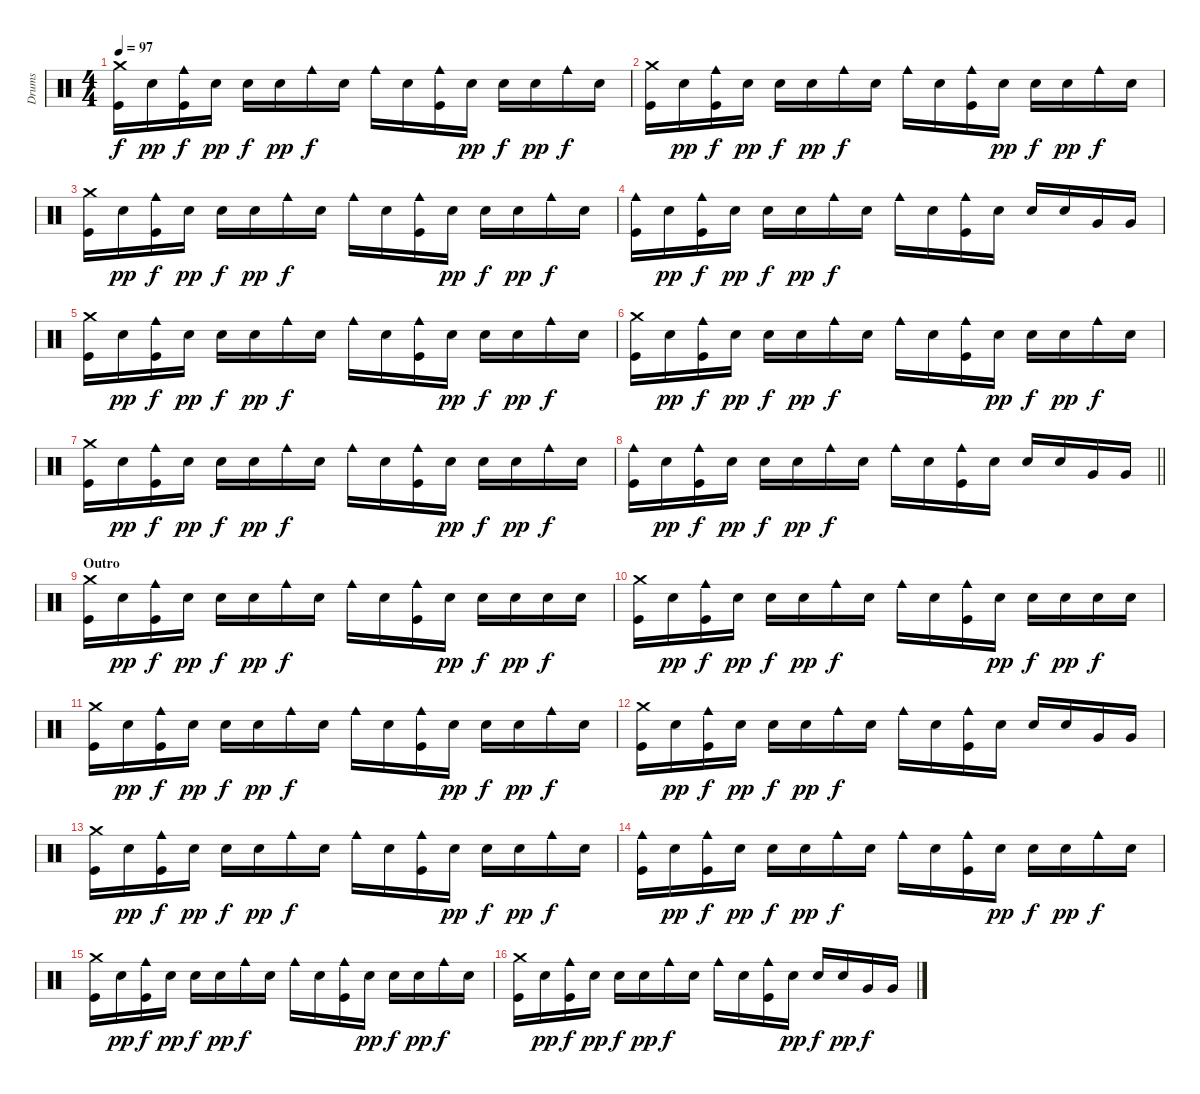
\track ("Drums" "Drums") {instrument percussion}
\staff {score}
\articulation defaults
\ts (4 4)
\tempo 97
\clef neutral
\ks c
("Crash medium (hit)" "Kick (hit)").16{dy f} "Electric Snare (hit)".16{dy pp} ("Cowbell medium (hit)" "Kick (hit)").16{dy f} "Electric Snare (hit)".16{dy pp} "Electric Snare (hit)".16{dy f} "Electric Snare (hit)".16{dy pp} "Cowbell medium (hit)".16{dy f} "Electric Snare (hit)".16 "Cowbell medium (hit)".16 "Electric Snare (hit)".16 ("Cowbell medium (hit)" "Kick (hit)").16 "Electric Snare (hit)".16{dy pp} "Electric Snare (hit)".16{dy f} "Electric Snare (hit)".16{dy pp} "Cowbell medium (hit)".16{dy f} "Electric Snare (hit)".16 |
("Crash medium (hit)" "Kick (hit)").16 "Electric Snare (hit)".16{dy pp} ("Cowbell medium (hit)" "Kick (hit)").16{dy f} "Electric Snare (hit)".16{dy pp} "Electric Snare (hit)".16{dy f} "Electric Snare (hit)".16{dy pp} "Cowbell medium (hit)".16{dy f} "Electric Snare (hit)".16 "Cowbell medium (hit)".16 "Electric Snare (hit)".16 ("Cowbell medium (hit)" "Kick (hit)").16 "Electric Snare (hit)".16{dy pp} "Electric Snare (hit)".16{dy f} "Electric Snare (hit)".16{dy pp} "Cowbell medium (hit)".16{dy f} "Electric Snare (hit)".16 |
("Crash medium (hit)" "Kick (hit)").16 "Electric Snare (hit)".16{dy pp} ("Cowbell medium (hit)" "Kick (hit)").16{dy f} "Electric Snare (hit)".16{dy pp} "Electric Snare (hit)".16{dy f} "Electric Snare (hit)".16{dy pp} "Cowbell medium (hit)".16{dy f} "Electric Snare (hit)".16 "Cowbell medium (hit)".16 "Electric Snare (hit)".16 ("Cowbell medium (hit)" "Kick (hit)").16 "Electric Snare (hit)".16{dy pp} "Electric Snare (hit)".16{dy f} "Electric Snare (hit)".16{dy pp} "Cowbell medium (hit)".16{dy f} "Electric Snare (hit)".16 |
("Cowbell medium (hit)" "Kick (hit)").16 "Electric Snare (hit)".16{dy pp} ("Cowbell medium (hit)" "Kick (hit)").16{dy f} "Electric Snare (hit)".16{dy pp} "Electric Snare (hit)".16{dy f} "Electric Snare (hit)".16{dy pp} "Cowbell medium (hit)".16{dy f} "Electric Snare (hit)".16 "Cowbell medium (hit)".16 "Electric Snare (hit)".16 ("Cowbell medium (hit)" "Kick (hit)").16 "Electric Snare (hit)".16 "Electric Snare (hit)".16 "Electric Snare (hit)".16 "Very Low Tom (hit)".16 "Very Low Tom (hit)".16 |
("Crash medium (hit)" "Kick (hit)").16 "Electric Snare (hit)".16{dy pp} ("Cowbell medium (hit)" "Kick (hit)").16{dy f} "Electric Snare (hit)".16{dy pp} "Electric Snare (hit)".16{dy f} "Electric Snare (hit)".16{dy pp} "Cowbell medium (hit)".16{dy f} "Electric Snare (hit)".16 "Cowbell medium (hit)".16 "Electric Snare (hit)".16 ("Cowbell medium (hit)" "Kick (hit)").16 "Electric Snare (hit)".16{dy pp} "Electric Snare (hit)".16{dy f} "Electric Snare (hit)".16{dy pp} "Cowbell medium (hit)".16{dy f} "Electric Snare (hit)".16 |
("Crash medium (hit)" "Kick (hit)").16 "Electric Snare (hit)".16{dy pp} ("Cowbell medium (hit)" "Kick (hit)").16{dy f} "Electric Snare (hit)".16{dy pp} "Electric Snare (hit)".16{dy f} "Electric Snare (hit)".16{dy pp} "Cowbell medium (hit)".16{dy f} "Electric Snare (hit)".16 "Cowbell medium (hit)".16 "Electric Snare (hit)".16 ("Cowbell medium (hit)" "Kick (hit)").16 "Electric Snare (hit)".16{dy pp} "Electric Snare (hit)".16{dy f} "Electric Snare (hit)".16{dy pp} "Cowbell medium (hit)".16{dy f} "Electric Snare (hit)".16 |
("Crash medium (hit)" "Kick (hit)").16 "Electric Snare (hit)".16{dy pp} ("Cowbell medium (hit)" "Kick (hit)").16{dy f} "Electric Snare (hit)".16{dy pp} "Electric Snare (hit)".16{dy f} "Electric Snare (hit)".16{dy pp} "Cowbell medium (hit)".16{dy f} "Electric Snare (hit)".16 "Cowbell medium (hit)".16 "Electric Snare (hit)".16 ("Cowbell medium (hit)" "Kick (hit)").16 "Electric Snare (hit)".16{dy pp} "Electric Snare (hit)".16{dy f} "Electric Snare (hit)".16{dy pp} "Cowbell medium (hit)".16{dy f} "Electric Snare (hit)".16 |
\barLineRight lightlight
("Cowbell medium (hit)" "Kick (hit)").16 "Electric Snare (hit)".16{dy pp} ("Cowbell medium (hit)" "Kick (hit)").16{dy f} "Electric Snare (hit)".16{dy pp} "Electric Snare (hit)".16{dy f} "Electric Snare (hit)".16{dy pp} "Cowbell medium (hit)".16{dy f} "Electric Snare (hit)".16 "Cowbell medium (hit)".16 "Electric Snare (hit)".16 ("Cowbell medium (hit)" "Kick (hit)").16 "Electric Snare (hit)".16 "Electric Snare (hit)".16 "Electric Snare (hit)".16 "Very Low Tom (hit)".16 "Very Low Tom (hit)".16 |
\section ("" "Outro")
("Crash medium (hit)" "Kick (hit)").16 "Electric Snare (hit)".16{dy pp} ("Cowbell medium (hit)" "Kick (hit)").16{dy f} "Electric Snare (hit)".16{dy pp} "Electric Snare (hit)".16{dy f} "Electric Snare (hit)".16{dy pp} "Cowbell medium (hit)".16{dy f} "Electric Snare (hit)".16 "Cowbell medium (hit)".16 "Electric Snare (hit)".16 ("Cowbell medium (hit)" "Kick (hit)").16 "Electric Snare (hit)".16{dy pp} "Electric Snare (hit)".16{dy f} "Electric Snare (hit)".16{dy pp} "Electric Snare (hit)".16{dy f} "Electric Snare (hit)".16 |
("Crash medium (hit)" "Kick (hit)").16 "Electric Snare (hit)".16{dy pp} ("Cowbell medium (hit)" "Kick (hit)").16{dy f} "Electric Snare (hit)".16{dy pp} "Electric Snare (hit)".16{dy f} "Electric Snare (hit)".16{dy pp} "Cowbell medium (hit)".16{dy f} "Electric Snare (hit)".16 "Cowbell medium (hit)".16 "Electric Snare (hit)".16 ("Cowbell medium (hit)" "Kick (hit)").16 "Electric Snare (hit)".16{dy pp} "Electric Snare (hit)".16{dy f} "Electric Snare (hit)".16{dy pp} "Electric Snare (hit)".16{dy f} "Electric Snare (hit)".16 |
("Crash medium (hit)" "Kick (hit)").16 "Electric Snare (hit)".16{dy pp} ("Cowbell medium (hit)" "Kick (hit)").16{dy f} "Electric Snare (hit)".16{dy pp} "Electric Snare (hit)".16{dy f} "Electric Snare (hit)".16{dy pp} "Cowbell medium (hit)".16{dy f} "Electric Snare (hit)".16 "Cowbell medium (hit)".16 "Electric Snare (hit)".16 ("Cowbell medium (hit)" "Kick (hit)").16 "Electric Snare (hit)".16{dy pp} "Electric Snare (hit)".16{dy f} "Electric Snare (hit)".16{dy pp} "Cowbell medium (hit)".16{dy f} "Electric Snare (hit)".16 |
("Crash medium (hit)" "Kick (hit)").16 "Electric Snare (hit)".16{dy pp} ("Cowbell medium (hit)" "Kick (hit)").16{dy f} "Electric Snare (hit)".16{dy pp} "Electric Snare (hit)".16{dy f} "Electric Snare (hit)".16{dy pp} "Cowbell medium (hit)".16{dy f} "Electric Snare (hit)".16 "Cowbell medium (hit)".16 "Electric Snare (hit)".16 ("Cowbell medium (hit)" "Kick (hit)").16 "Electric Snare (hit)".16 "Electric Snare (hit)".16 "Electric Snare (hit)".16 "Very Low Tom (hit)".16 "Very Low Tom (hit)".16 |
("Crash medium (hit)" "Kick (hit)").16 "Electric Snare (hit)".16{dy pp} ("Cowbell medium (hit)" "Kick (hit)").16{dy f} "Electric Snare (hit)".16{dy pp} "Electric Snare (hit)".16{dy f} "Electric Snare (hit)".16{dy pp} "Cowbell medium (hit)".16{dy f} "Electric Snare (hit)".16 "Cowbell medium (hit)".16 "Electric Snare (hit)".16 ("Cowbell medium (hit)" "Kick (hit)").16 "Electric Snare (hit)".16{dy pp} "Electric Snare (hit)".16{dy f} "Electric Snare (hit)".16{dy pp} "Cowbell medium (hit)".16{dy f} "Electric Snare (hit)".16 |
("Cowbell medium (hit)" "Kick (hit)").16 "Electric Snare (hit)".16{dy pp} ("Cowbell medium (hit)" "Kick (hit)").16{dy f} "Electric Snare (hit)".16{dy pp} "Electric Snare (hit)".16{dy f} "Electric Snare (hit)".16{dy pp} "Cowbell medium (hit)".16{dy f} "Electric Snare (hit)".16 "Cowbell medium (hit)".16 "Electric Snare (hit)".16 ("Cowbell medium (hit)" "Kick (hit)").16 "Electric Snare (hit)".16{dy pp} "Electric Snare (hit)".16{dy f} "Electric Snare (hit)".16{dy pp} "Cowbell medium (hit)".16{dy f} "Electric Snare (hit)".16 |
("Crash medium (hit)" "Kick (hit)").16 "Electric Snare (hit)".16{dy pp} ("Cowbell medium (hit)" "Kick (hit)").16{dy f} "Electric Snare (hit)".16{dy pp} "Electric Snare (hit)".16{dy f} "Electric Snare (hit)".16{dy pp} "Cowbell medium (hit)".16{dy f} "Electric Snare (hit)".16 "Cowbell medium (hit)".16 "Electric Snare (hit)".16 ("Cowbell medium (hit)" "Kick (hit)").16 "Electric Snare (hit)".16{dy pp} "Electric Snare (hit)".16{dy f} "Electric Snare (hit)".16{dy pp} "Cowbell medium (hit)".16{dy f} "Electric Snare (hit)".16 |
("Crash medium (hit)" "Kick (hit)").16 "Electric Snare (hit)".16{dy pp} ("Cowbell medium (hit)" "Kick (hit)").16{dy f} "Electric Snare (hit)".16{dy pp} "Electric Snare (hit)".16{dy f} "Electric Snare (hit)".16{dy pp} "Cowbell medium (hit)".16{dy f} "Electric Snare (hit)".16 "Cowbell medium (hit)".16 "Electric Snare (hit)".16 ("Cowbell medium (hit)" "Kick (hit)").16 "Electric Snare (hit)".16{dy pp} "Electric Snare (hit)".16{dy f} "Electric Snare (hit)".16{dy pp} "Very Low Tom (hit)".16{dy f} "Very Low Tom (hit)".16
